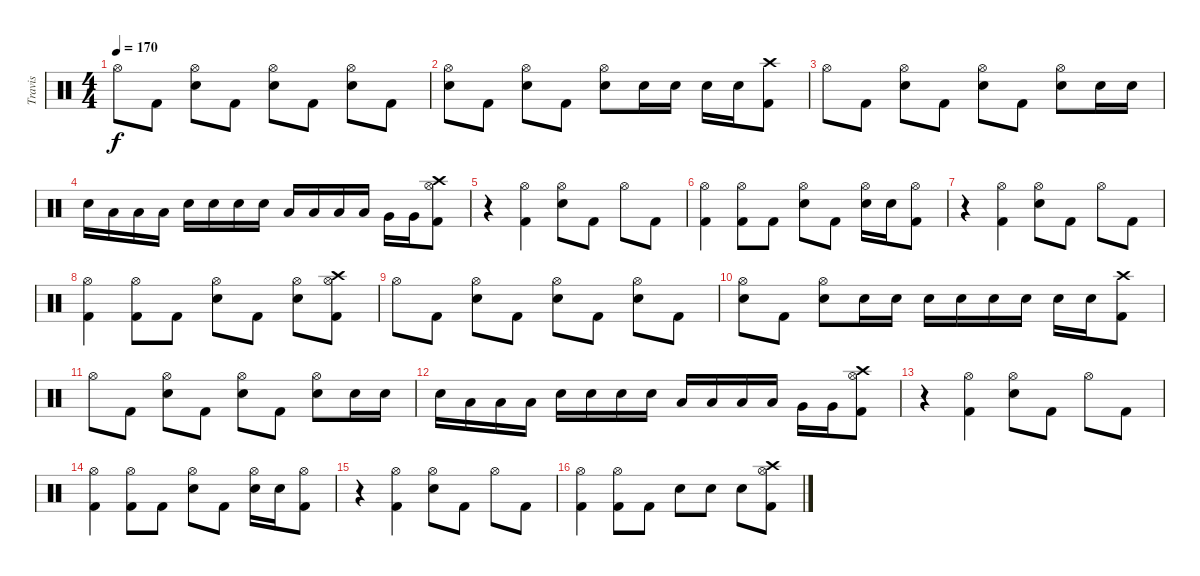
\track ("Travis" "Travis") {instrument percussion}
\staff {score}
\articulation defaults
\ts (4 4)
\tempo 170
\clef neutral
\ks c "Hi-Hat (open)".8{dy f} "Kick (hit) 2".8
("Hi-Hat (open)" "Snare (hit) 2").8 "Kick (hit) 2".8 ("Hi-Hat (open)" "Snare (hit) 2").8 "Kick (hit) 2".8 ("Hi-Hat (open)" "Snare (hit) 2").8 "Kick (hit) 2".8 |
("Hi-Hat (open)" "Snare (hit) 2").8 "Kick (hit) 2".8 ("Hi-Hat (open)" "Snare (hit) 2").8 "Kick (hit) 2".8 ("Hi-Hat (open)" "Snare (hit) 2").8 "Snare (hit) 2".16 "Snare (hit) 2".16 "Snare (hit) 2".16 "Snare (hit) 2".16 ("Crash high (hit)" "Kick (hit) 2").8 |
"Hi-Hat (open)".8 "Kick (hit) 2".8 ("Hi-Hat (open)" "Snare (hit) 2").8 "Kick (hit) 2".8 ("Hi-Hat (open)" "Snare (hit) 2").8 "Kick (hit) 2".8 ("Hi-Hat (open)" "Snare (hit) 2").8 "Snare (hit) 2".16 "Snare (hit) 2".16 |
"Snare (hit) 2".16 "Low Tom (hit)".16 "Low Tom (hit)".16 "Low Tom (hit)".16 "Snare (hit) 2".16 "Snare (hit) 2".16 "Snare (hit) 2".16 "Snare (hit) 2".16 "Low Tom (hit)".16 "Low Tom (hit)".16 "Low Tom (hit)".16 "Low Tom (hit)".16 "Very Low Tom (hit)".16 "Very Low Tom (hit)".16 ("Crash high (hit)" "Hi-Hat (open)" "Kick (hit) 2").8 |
r.4 ("Hi-Hat (open)" "Kick (hit) 2").4 ("Hi-Hat (open)" "Snare (hit) 2").8 "Kick (hit) 2".8 "Hi-Hat (open)".8 "Kick (hit) 2".8 |
("Hi-Hat (open)" "Kick (hit) 2").4 ("Hi-Hat (open)" "Kick (hit) 2").8 "Kick (hit) 2".8 ("Hi-Hat (open)" "Snare (hit) 2").8 "Kick (hit) 2".8 ("Hi-Hat (open)" "Snare (hit) 2").16 "Snare (hit) 2".16 ("Hi-Hat (open)" "Kick (hit) 2").8 |
r.4 ("Hi-Hat (open)" "Kick (hit) 2").4 ("Hi-Hat (open)" "Snare (hit) 2").8 "Kick (hit) 2".8 "Hi-Hat (open)".8 "Kick (hit) 2".8 |
("Hi-Hat (open)" "Kick (hit) 2").4 ("Hi-Hat (open)" "Kick (hit) 2").8 "Kick (hit) 2".8 ("Hi-Hat (open)" "Snare (hit) 2").8 "Kick (hit) 2".8 ("Hi-Hat (open)" "Snare (hit) 2").8 ("Crash high (hit)" "Hi-Hat (open)" "Kick (hit) 2").8 |
"Hi-Hat (open)".8 "Kick (hit) 2".8 ("Hi-Hat (open)" "Snare (hit) 2").8 "Kick (hit) 2".8 ("Hi-Hat (open)" "Snare (hit) 2").8 "Kick (hit) 2".8 ("Hi-Hat (open)" "Snare (hit) 2").8 "Kick (hit) 2".8 |
("Hi-Hat (open)" "Snare (hit) 2").8 "Kick (hit) 2".8 ("Hi-Hat (open)" "Snare (hit) 2").8 "Snare (hit) 2".16 "Snare (hit) 2".16 "Snare (hit) 2".16 "Snare (hit) 2".16 "Snare (hit) 2".16 "Snare (hit) 2".16 "Snare (hit) 2".16 "Snare (hit) 2".16 ("Crash high (hit)" "Kick (hit) 2").8 |
"Hi-Hat (open)".8 "Kick (hit) 2".8 ("Hi-Hat (open)" "Snare (hit) 2").8 "Kick (hit) 2".8 ("Hi-Hat (open)" "Snare (hit) 2").8 "Kick (hit) 2".8 ("Hi-Hat (open)" "Snare (hit) 2").8 "Snare (hit) 2".16 "Snare (hit) 2".16 |
"Snare (hit) 2".16 "Low Tom (hit)".16 "Low Tom (hit)".16 "Low Tom (hit)".16 "Snare (hit) 2".16 "Snare (hit) 2".16 "Snare (hit) 2".16 "Snare (hit) 2".16 "Low Tom (hit)".16 "Low Tom (hit)".16 "Low Tom (hit)".16 "Low Tom (hit)".16 "Very Low Tom (hit)".16 "Very Low Tom (hit)".16 ("Crash high (hit)" "Hi-Hat (open)" "Kick (hit) 2").8 |
r.4 ("Hi-Hat (open)" "Kick (hit) 2").4 ("Hi-Hat (open)" "Snare (hit) 2").8 "Kick (hit) 2".8 "Hi-Hat (open)".8 "Kick (hit) 2".8 |
("Hi-Hat (open)" "Kick (hit) 2").4 ("Hi-Hat (open)" "Kick (hit) 2").8 "Kick (hit) 2".8 ("Hi-Hat (open)" "Snare (hit) 2").8 "Kick (hit) 2".8 ("Hi-Hat (open)" "Snare (hit) 2").16 "Snare (hit) 2".16 ("Hi-Hat (open)" "Kick (hit) 2").8 |
r.4 ("Hi-Hat (open)" "Kick (hit) 2").4 ("Hi-Hat (open)" "Snare (hit) 2").8 "Kick (hit) 2".8 "Hi-Hat (open)".8 "Kick (hit) 2".8 |
("Hi-Hat (open)" "Kick (hit) 2").4 ("Hi-Hat (open)" "Kick (hit) 2").8 "Kick (hit) 2".8 "Snare (hit) 2".8 "Snare (hit) 2".8 "Snare (hit) 2".8 ("Crash high (hit)" "Hi-Hat (open)" "Kick (hit) 2").8
